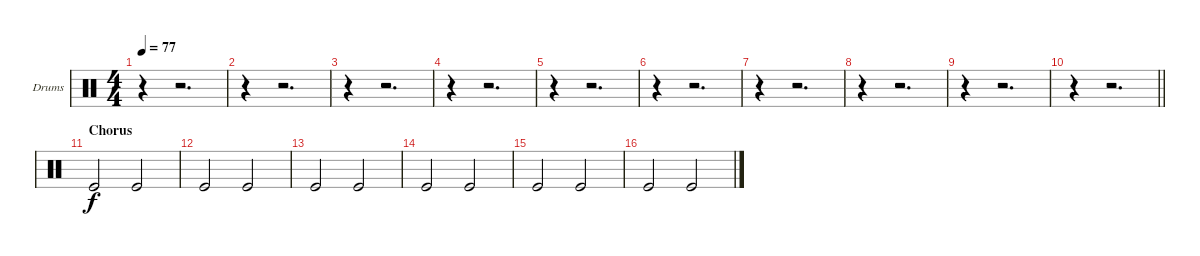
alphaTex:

\bracketExtendMode groupsimilarinstruments
\firstSystemTrackNameOrientation horizontal
\otherSystemsTrackNameOrientation horizontal
\track ("Drumkit" "Drums") {instrument percussion}
\staff {score}
\articulation defaults
\ts (4 4)
\tempo 77
\clef neutral
\ks c
r.4{dy f} r.2{d} |
r.4 r.2{d} |
r.4 r.2{d} |
r.4 r.2{d} |
r.4 r.2{d} |
r.4 r.2{d} |
r.4 r.2{d} |
r.4 r.2{d} |
r.4 r.2{d} |
\barLineRight lightlight
r.4 r.2{d} |
\section ("" "Chorus")
"Kick (hit)".2 "Kick (hit)".2 |
"Kick (hit)".2 "Kick (hit)".2 |
"Kick (hit)".2 "Kick (hit)".2 |
"Kick (hit)".2 "Kick (hit)".2 |
"Kick (hit)".2 "Kick (hit)".2 |
"Kick (hit)".2 "Kick (hit)".2
